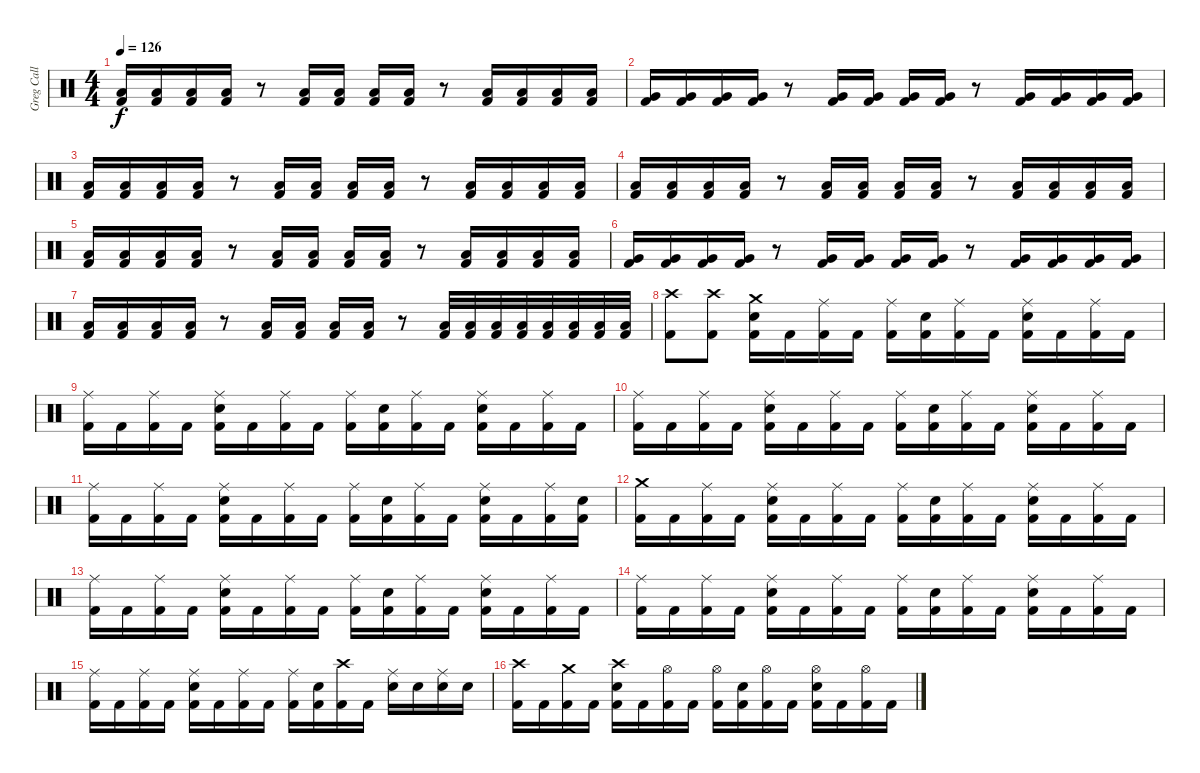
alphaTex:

\track ("Greg Call (Drums)" "Greg Call ") {instrument percussion}
\staff {score}
\articulation defaults
\ts (4 4)
\tempo 126
\clef neutral
\ks c
("Low Floor Tom (hit)" "Kick (hit) 2").16{dy f} ("Low Floor Tom (hit)" "Kick (hit) 2").16 ("Low Floor Tom (hit)" "Kick (hit) 2").16 ("Low Floor Tom (hit)" "Kick (hit) 2").16 r.8 ("Low Floor Tom (hit)" "Kick (hit) 2").16 ("Low Floor Tom (hit)" "Kick (hit) 2").16 ("Low Floor Tom (hit)" "Kick (hit) 2").16 ("Low Floor Tom (hit)" "Kick (hit) 2").16 r.8 ("Low Floor Tom (hit)" "Kick (hit) 2").16 ("Low Floor Tom (hit)" "Kick (hit) 2").16 ("Low Floor Tom (hit)" "Kick (hit) 2").16 ("Low Floor Tom (hit)" "Kick (hit) 2").16 |
("Very Low Tom (hit)" "Kick (hit) 2").16 ("Very Low Tom (hit)" "Kick (hit) 2").16 ("Very Low Tom (hit)" "Kick (hit) 2").16 ("Very Low Tom (hit)" "Kick (hit) 2").16 r.8 ("Very Low Tom (hit)" "Kick (hit) 2").16 ("Very Low Tom (hit)" "Kick (hit) 2").16 ("Very Low Tom (hit)" "Kick (hit) 2").16 ("Very Low Tom (hit)" "Kick (hit) 2").16 r.8 ("Very Low Tom (hit)" "Kick (hit) 2").16 ("Very Low Tom (hit)" "Kick (hit) 2").16 ("Very Low Tom (hit)" "Kick (hit) 2").16 ("Very Low Tom (hit)" "Kick (hit) 2").16 |
("Low Tom (hit)" "Kick (hit) 2").16 ("Low Tom (hit)" "Kick (hit) 2").16 ("Low Tom (hit)" "Kick (hit) 2").16 ("Low Tom (hit)" "Kick (hit) 2").16 r.8 ("Low Tom (hit)" "Kick (hit) 2").16 ("Low Tom (hit)" "Kick (hit) 2").16 ("Low Tom (hit)" "Kick (hit) 2").16 ("Low Tom (hit)" "Kick (hit) 2").16 r.8 ("Low Tom (hit)" "Kick (hit) 2").16 ("Low Tom (hit)" "Kick (hit) 2").16 ("Low Tom (hit)" "Kick (hit) 2").16 ("Low Tom (hit)" "Kick (hit) 2").16 |
("Low Floor Tom (hit)" "Kick (hit) 2").16{volume 14} ("Low Floor Tom (hit)" "Kick (hit) 2").16 ("Low Floor Tom (hit)" "Kick (hit) 2").16 ("Low Floor Tom (hit)" "Kick (hit) 2").16 r.8 ("Low Floor Tom (hit)" "Kick (hit) 2").16 ("Low Floor Tom (hit)" "Kick (hit) 2").16 ("Low Floor Tom (hit)" "Kick (hit) 2").16 ("Low Floor Tom (hit)" "Kick (hit) 2").16 r.8 ("Low Floor Tom (hit)" "Kick (hit) 2").16 ("Low Floor Tom (hit)" "Kick (hit) 2").16 ("Low Floor Tom (hit)" "Kick (hit) 2").16 ("Low Floor Tom (hit)" "Kick (hit) 2").16 |
("Low Floor Tom (hit)" "Kick (hit) 2").16 ("Low Floor Tom (hit)" "Kick (hit) 2").16 ("Low Floor Tom (hit)" "Kick (hit) 2").16 ("Low Floor Tom (hit)" "Kick (hit) 2").16 r.8 ("Low Floor Tom (hit)" "Kick (hit) 2").16 ("Low Floor Tom (hit)" "Kick (hit) 2").16 ("Low Floor Tom (hit)" "Kick (hit) 2").16 ("Low Floor Tom (hit)" "Kick (hit) 2").16 r.8 ("Low Floor Tom (hit)" "Kick (hit) 2").16 ("Low Floor Tom (hit)" "Kick (hit) 2").16 ("Low Floor Tom (hit)" "Kick (hit) 2").16 ("Low Floor Tom (hit)" "Kick (hit) 2").16 |
("Very Low Tom (hit)" "Kick (hit) 2").16 ("Very Low Tom (hit)" "Kick (hit) 2").16 ("Very Low Tom (hit)" "Kick (hit) 2").16 ("Very Low Tom (hit)" "Kick (hit) 2").16 r.8 ("Very Low Tom (hit)" "Kick (hit) 2").16 ("Very Low Tom (hit)" "Kick (hit) 2").16 ("Very Low Tom (hit)" "Kick (hit) 2").16 ("Very Low Tom (hit)" "Kick (hit) 2").16 r.8 ("Very Low Tom (hit)" "Kick (hit) 2").16 ("Very Low Tom (hit)" "Kick (hit) 2").16 ("Very Low Tom (hit)" "Kick (hit) 2").16 ("Very Low Tom (hit)" "Kick (hit) 2").16 |
("Low Tom (hit)" "Kick (hit) 2").16 ("Low Tom (hit)" "Kick (hit) 2").16 ("Low Tom (hit)" "Kick (hit) 2").16 ("Low Tom (hit)" "Kick (hit) 2").16 r.8 ("Low Tom (hit)" "Kick (hit) 2").16 ("Low Tom (hit)" "Kick (hit) 2").16 ("Low Tom (hit)" "Kick (hit) 2").16 ("Low Tom (hit)" "Kick (hit) 2").16 r.8 ("Low Tom (hit)" "Kick (hit) 2").32 ("Low Tom (hit)" "Kick (hit) 2").32 ("Low Tom (hit)" "Kick (hit) 2").32 ("Low Tom (hit)" "Kick (hit) 2").32 ("Low Tom (hit)" "Kick (hit) 2").32 ("Low Tom (hit)" "Kick (hit) 2").32 ("Low Tom (hit)" "Kick (hit) 2").32 ("Low Tom (hit)" "Kick (hit) 2").32 |
("Crash high (hit)" "Kick (hit) 2").8 ("Crash high (hit)" "Kick (hit) 2").8 ("Crash medium (hit)" "Snare (hit) 2" "Kick (hit) 2").16 "Kick (hit) 2".16 ("Ride (middle)" "Kick (hit) 2").16 "Kick (hit) 2".16 ("Ride (middle)" "Kick (hit) 2").16 ("Snare (hit) 2" "Kick (hit) 2").16 ("Ride (middle)" "Kick (hit) 2").16 "Kick (hit) 2".16 ("Snare (hit) 2" "Ride (middle)" "Kick (hit) 2").16 "Kick (hit) 2".16 ("Ride (middle)" "Kick (hit) 2").16 "Kick (hit) 2".16 |
("Ride (middle)" "Kick (hit) 2").16 "Kick (hit) 2".16 ("Ride (middle)" "Kick (hit) 2").16 "Kick (hit) 2".16 ("Ride (middle)" "Snare (hit) 2" "Kick (hit) 2").16 "Kick (hit) 2".16 ("Ride (middle)" "Kick (hit) 2").16 "Kick (hit) 2".16 ("Ride (middle)" "Kick (hit) 2").16 ("Snare (hit) 2" "Kick (hit) 2").16 ("Ride (middle)" "Kick (hit) 2").16 "Kick (hit) 2".16 ("Ride (middle)" "Snare (hit) 2" "Kick (hit) 2").16 "Kick (hit) 2".16 ("Ride (middle)" "Kick (hit) 2").16 "Kick (hit) 2".16 |
("Ride (middle)" "Kick (hit) 2").16 "Kick (hit) 2".16 ("Ride (middle)" "Kick (hit) 2").16 "Kick (hit) 2".16 ("Ride (middle)" "Snare (hit) 2" "Kick (hit) 2").16 "Kick (hit) 2".16 ("Ride (middle)" "Kick (hit) 2").16 "Kick (hit) 2".16 ("Ride (middle)" "Kick (hit) 2").16 ("Snare (hit) 2" "Kick (hit) 2").16 ("Ride (middle)" "Kick (hit) 2").16 "Kick (hit) 2".16 ("Ride (middle)" "Snare (hit) 2" "Kick (hit) 2").16 "Kick (hit) 2".16 ("Ride (middle)" "Kick (hit) 2").16 "Kick (hit) 2".16 |
("Ride (middle)" "Kick (hit) 2").16 "Kick (hit) 2".16 ("Ride (middle)" "Kick (hit) 2").16 "Kick (hit) 2".16 ("Ride (middle)" "Snare (hit) 2" "Kick (hit) 2").16 "Kick (hit) 2".16 ("Ride (middle)" "Kick (hit) 2").16 "Kick (hit) 2".16 ("Ride (middle)" "Kick (hit) 2").16 ("Snare (hit) 2" "Kick (hit) 2").16 ("Ride (middle)" "Kick (hit) 2").16 "Kick (hit) 2".16 ("Ride (middle)" "Snare (hit) 2" "Kick (hit) 2").16 "Kick (hit) 2".16 ("Ride (middle)" "Kick (hit) 2").16 ("Snare (hit) 2" "Kick (hit) 2").16 |
("Crash medium (hit)" "Kick (hit) 2").16 "Kick (hit) 2".16 ("Ride (middle)" "Kick (hit) 2").16 "Kick (hit) 2".16 ("Ride (middle)" "Snare (hit) 2" "Kick (hit) 2").16 "Kick (hit) 2".16 ("Ride (middle)" "Kick (hit) 2").16 "Kick (hit) 2".16 ("Ride (middle)" "Kick (hit) 2").16 ("Snare (hit) 2" "Kick (hit) 2").16 ("Ride (middle)" "Kick (hit) 2").16 "Kick (hit) 2".16 ("Ride (middle)" "Snare (hit) 2" "Kick (hit) 2").16 "Kick (hit) 2".16 ("Ride (middle)" "Kick (hit) 2").16 "Kick (hit) 2".16 |
("Ride (middle)" "Kick (hit) 2").16 "Kick (hit) 2".16 ("Ride (middle)" "Kick (hit) 2").16 "Kick (hit) 2".16 ("Ride (middle)" "Snare (hit) 2" "Kick (hit) 2").16 "Kick (hit) 2".16 ("Ride (middle)" "Kick (hit) 2").16 "Kick (hit) 2".16 ("Ride (middle)" "Kick (hit) 2").16 ("Snare (hit) 2" "Kick (hit) 2").16 ("Ride (middle)" "Kick (hit) 2").16 "Kick (hit) 2".16 ("Ride (middle)" "Snare (hit) 2" "Kick (hit) 2").16 "Kick (hit) 2".16 ("Ride (middle)" "Kick (hit) 2").16 "Kick (hit) 2".16 |
("Ride (middle)" "Kick (hit) 2").16 "Kick (hit) 2".16 ("Ride (middle)" "Kick (hit) 2").16 "Kick (hit) 2".16 ("Ride (middle)" "Snare (hit) 2" "Kick (hit) 2").16 "Kick (hit) 2".16 ("Ride (middle)" "Kick (hit) 2").16 "Kick (hit) 2".16 ("Ride (middle)" "Kick (hit) 2").16 ("Snare (hit) 2" "Kick (hit) 2").16 ("Ride (middle)" "Kick (hit) 2").16 "Kick (hit) 2".16 ("Ride (middle)" "Snare (hit) 2" "Kick (hit) 2").16 "Kick (hit) 2".16 ("Ride (middle)" "Kick (hit) 2").16 "Kick (hit) 2".16 |
("Ride (middle)" "Kick (hit) 2").16 "Kick (hit) 2".16 ("Ride (middle)" "Kick (hit) 2").16 "Kick (hit) 2".16 ("Ride (middle)" "Snare (hit) 2" "Kick (hit) 2").16 "Kick (hit) 2".16 ("Ride (middle)" "Kick (hit) 2").16 "Kick (hit) 2".16 ("Ride (middle)" "Kick (hit) 2").16 ("Snare (hit) 2" "Kick (hit) 2").16 ("Crash high (hit)" "Kick (hit) 2").16 "Kick (hit) 2".16 ("Ride (middle)" "Snare (hit) 2").16 "Snare (hit) 2".16 ("Ride (middle)" "Snare (hit) 2").16 "Snare (hit) 2".16 |
("Crash high (hit)" "Kick (hit) 2").16 "Kick (hit) 2".16 ("Crash medium (hit)" "Kick (hit) 2").16 "Kick (hit) 2".16 ("Crash high (hit)" "Snare (hit) 2" "Kick (hit) 2").16 "Kick (hit) 2".16 ("Hi-Hat (open)" "Kick (hit) 2").16 "Kick (hit) 2".16 ("Hi-Hat (open)" "Kick (hit) 2").16 ("Snare (hit) 2" "Kick (hit) 2").16 ("Hi-Hat (open)" "Kick (hit) 2").16 "Kick (hit) 2".16 ("Hi-Hat (open)" "Snare (hit) 2" "Kick (hit) 2").16 "Kick (hit) 2".16 ("Hi-Hat (open)" "Kick (hit) 2").16 "Kick (hit) 2".16
